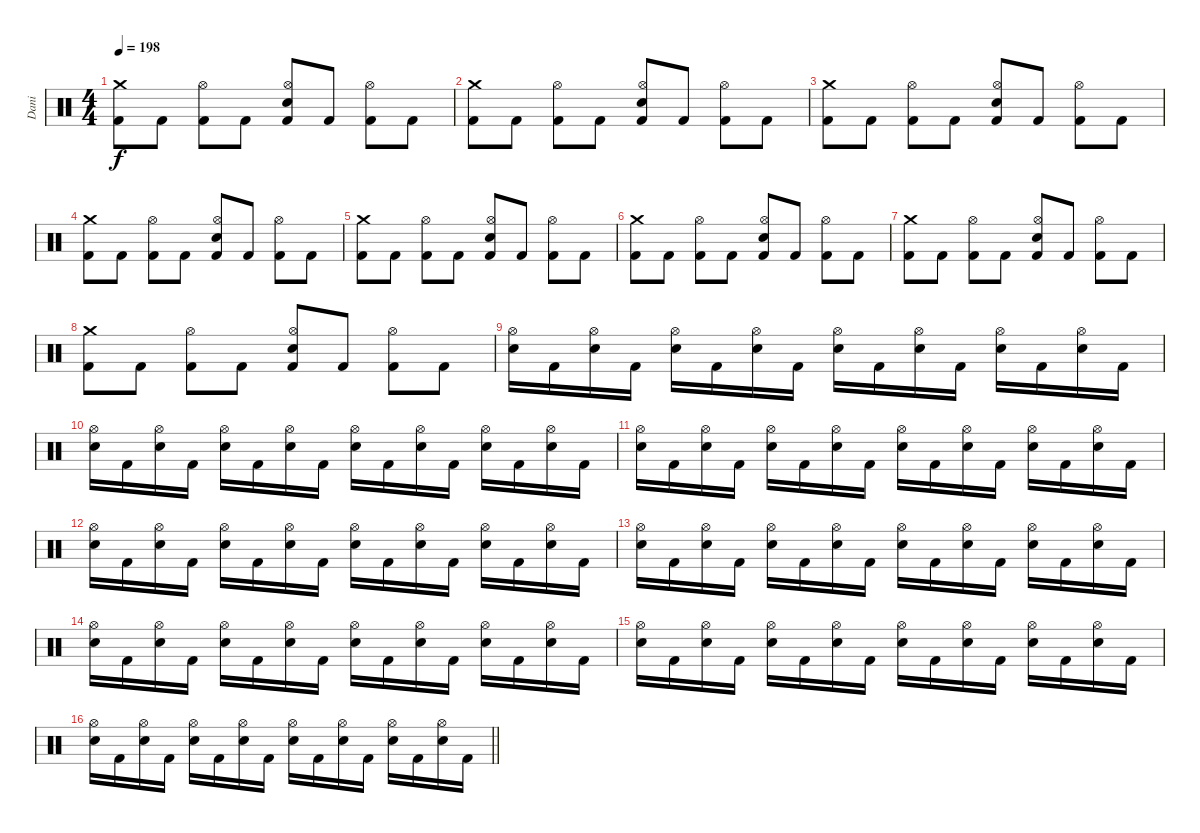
\track ("Dani" "Dani") {instrument percussion}
\staff {score}
\articulation defaults
\ts (4 4)
\tempo 198
\clef neutral
\ks c
("Crash medium (hit)" "Kick (hit) 2").8{dy f} "Kick (hit) 2".8 ("Hi-Hat (open)" "Kick (hit) 2").8 "Kick (hit) 2".8 ("Hi-Hat (open)" "Kick (hit) 2" "Electric Snare (hit)").8 "Kick (hit) 2".8 ("Hi-Hat (open)" "Kick (hit) 2").8 "Kick (hit) 2".8 |
("Crash medium (hit)" "Kick (hit) 2").8 "Kick (hit) 2".8 ("Hi-Hat (open)" "Kick (hit) 2").8 "Kick (hit) 2".8 ("Hi-Hat (open)" "Kick (hit) 2" "Electric Snare (hit)").8 "Kick (hit) 2".8 ("Hi-Hat (open)" "Kick (hit) 2").8 "Kick (hit) 2".8 |
("Crash medium (hit)" "Kick (hit) 2").8 "Kick (hit) 2".8 ("Hi-Hat (open)" "Kick (hit) 2").8 "Kick (hit) 2".8 ("Hi-Hat (open)" "Kick (hit) 2" "Electric Snare (hit)").8 "Kick (hit) 2".8 ("Hi-Hat (open)" "Kick (hit) 2").8 "Kick (hit) 2".8 |
("Crash medium (hit)" "Kick (hit) 2").8 "Kick (hit) 2".8 ("Hi-Hat (open)" "Kick (hit) 2").8 "Kick (hit) 2".8 ("Hi-Hat (open)" "Kick (hit) 2" "Electric Snare (hit)").8 "Kick (hit) 2".8 ("Hi-Hat (open)" "Kick (hit) 2").8 "Kick (hit) 2".8 |
("Crash medium (hit)" "Kick (hit) 2").8 "Kick (hit) 2".8 ("Hi-Hat (open)" "Kick (hit) 2").8 "Kick (hit) 2".8 ("Hi-Hat (open)" "Kick (hit) 2" "Electric Snare (hit)").8 "Kick (hit) 2".8 ("Hi-Hat (open)" "Kick (hit) 2").8 "Kick (hit) 2".8 |
("Crash medium (hit)" "Kick (hit) 2").8 "Kick (hit) 2".8 ("Hi-Hat (open)" "Kick (hit) 2").8 "Kick (hit) 2".8 ("Hi-Hat (open)" "Kick (hit) 2" "Electric Snare (hit)").8 "Kick (hit) 2".8 ("Hi-Hat (open)" "Kick (hit) 2").8 "Kick (hit) 2".8 |
("Crash medium (hit)" "Kick (hit) 2").8 "Kick (hit) 2".8 ("Hi-Hat (open)" "Kick (hit) 2").8 "Kick (hit) 2".8 ("Hi-Hat (open)" "Kick (hit) 2" "Electric Snare (hit)").8 "Kick (hit) 2".8 ("Hi-Hat (open)" "Kick (hit) 2").8 "Kick (hit) 2".8 |
("Crash medium (hit)" "Kick (hit) 2").8 "Kick (hit) 2".8 ("Hi-Hat (open)" "Kick (hit) 2").8 "Kick (hit) 2".8 ("Hi-Hat (open)" "Kick (hit) 2" "Electric Snare (hit)").8 "Kick (hit) 2".8 ("Hi-Hat (open)" "Kick (hit) 2").8 "Kick (hit) 2".8 |
("Hi-Hat (open)" "Electric Snare (hit)").16 "Kick (hit) 2".16 ("Hi-Hat (open)" "Electric Snare (hit)").16 "Kick (hit) 2".16 ("Hi-Hat (open)" "Electric Snare (hit)").16 "Kick (hit) 2".16 ("Hi-Hat (open)" "Electric Snare (hit)").16 "Kick (hit) 2".16 ("Hi-Hat (open)" "Electric Snare (hit)").16 "Kick (hit) 2".16 ("Hi-Hat (open)" "Electric Snare (hit)").16 "Kick (hit) 2".16 ("Hi-Hat (open)" "Electric Snare (hit)").16 "Kick (hit) 2".16 ("Hi-Hat (open)" "Electric Snare (hit)").16 "Kick (hit) 2".16 |
("Hi-Hat (open)" "Electric Snare (hit)").16 "Kick (hit) 2".16 ("Hi-Hat (open)" "Electric Snare (hit)").16 "Kick (hit) 2".16 ("Hi-Hat (open)" "Electric Snare (hit)").16 "Kick (hit) 2".16 ("Hi-Hat (open)" "Electric Snare (hit)").16 "Kick (hit) 2".16 ("Hi-Hat (open)" "Electric Snare (hit)").16 "Kick (hit) 2".16 ("Hi-Hat (open)" "Electric Snare (hit)").16 "Kick (hit) 2".16 ("Hi-Hat (open)" "Electric Snare (hit)").16 "Kick (hit) 2".16 ("Hi-Hat (open)" "Electric Snare (hit)").16 "Kick (hit) 2".16 |
("Hi-Hat (open)" "Electric Snare (hit)").16 "Kick (hit) 2".16 ("Hi-Hat (open)" "Electric Snare (hit)").16 "Kick (hit) 2".16 ("Hi-Hat (open)" "Electric Snare (hit)").16 "Kick (hit) 2".16 ("Hi-Hat (open)" "Electric Snare (hit)").16 "Kick (hit) 2".16 ("Hi-Hat (open)" "Electric Snare (hit)").16 "Kick (hit) 2".16 ("Hi-Hat (open)" "Electric Snare (hit)").16 "Kick (hit) 2".16 ("Hi-Hat (open)" "Electric Snare (hit)").16 "Kick (hit) 2".16 ("Hi-Hat (open)" "Electric Snare (hit)").16 "Kick (hit) 2".16 |
("Hi-Hat (open)" "Electric Snare (hit)").16 "Kick (hit) 2".16 ("Hi-Hat (open)" "Electric Snare (hit)").16 "Kick (hit) 2".16 ("Hi-Hat (open)" "Electric Snare (hit)").16 "Kick (hit) 2".16 ("Hi-Hat (open)" "Electric Snare (hit)").16 "Kick (hit) 2".16 ("Hi-Hat (open)" "Electric Snare (hit)").16 "Kick (hit) 2".16 ("Hi-Hat (open)" "Electric Snare (hit)").16 "Kick (hit) 2".16 ("Hi-Hat (open)" "Electric Snare (hit)").16 "Kick (hit) 2".16 ("Hi-Hat (open)" "Electric Snare (hit)").16 "Kick (hit) 2".16 |
("Hi-Hat (open)" "Electric Snare (hit)").16 "Kick (hit) 2".16 ("Hi-Hat (open)" "Electric Snare (hit)").16 "Kick (hit) 2".16 ("Hi-Hat (open)" "Electric Snare (hit)").16 "Kick (hit) 2".16 ("Hi-Hat (open)" "Electric Snare (hit)").16 "Kick (hit) 2".16 ("Hi-Hat (open)" "Electric Snare (hit)").16 "Kick (hit) 2".16 ("Hi-Hat (open)" "Electric Snare (hit)").16 "Kick (hit) 2".16 ("Hi-Hat (open)" "Electric Snare (hit)").16 "Kick (hit) 2".16 ("Hi-Hat (open)" "Electric Snare (hit)").16 "Kick (hit) 2".16 |
("Hi-Hat (open)" "Electric Snare (hit)").16 "Kick (hit) 2".16 ("Hi-Hat (open)" "Electric Snare (hit)").16 "Kick (hit) 2".16 ("Hi-Hat (open)" "Electric Snare (hit)").16 "Kick (hit) 2".16 ("Hi-Hat (open)" "Electric Snare (hit)").16 "Kick (hit) 2".16 ("Hi-Hat (open)" "Electric Snare (hit)").16 "Kick (hit) 2".16 ("Hi-Hat (open)" "Electric Snare (hit)").16 "Kick (hit) 2".16 ("Hi-Hat (open)" "Electric Snare (hit)").16 "Kick (hit) 2".16 ("Hi-Hat (open)" "Electric Snare (hit)").16 "Kick (hit) 2".16 |
("Hi-Hat (open)" "Electric Snare (hit)").16 "Kick (hit) 2".16 ("Hi-Hat (open)" "Electric Snare (hit)").16 "Kick (hit) 2".16 ("Hi-Hat (open)" "Electric Snare (hit)").16 "Kick (hit) 2".16 ("Hi-Hat (open)" "Electric Snare (hit)").16 "Kick (hit) 2".16 ("Hi-Hat (open)" "Electric Snare (hit)").16 "Kick (hit) 2".16 ("Hi-Hat (open)" "Electric Snare (hit)").16 "Kick (hit) 2".16 ("Hi-Hat (open)" "Electric Snare (hit)").16 "Kick (hit) 2".16 ("Hi-Hat (open)" "Electric Snare (hit)").16 "Kick (hit) 2".16 |
\barLineRight lightlight
("Hi-Hat (open)" "Electric Snare (hit)").16 "Kick (hit) 2".16 ("Hi-Hat (open)" "Electric Snare (hit)").16 "Kick (hit) 2".16 ("Hi-Hat (open)" "Electric Snare (hit)").16 "Kick (hit) 2".16 ("Hi-Hat (open)" "Electric Snare (hit)").16 "Kick (hit) 2".16 ("Hi-Hat (open)" "Electric Snare (hit)").16 "Kick (hit) 2".16 ("Hi-Hat (open)" "Electric Snare (hit)").16 "Kick (hit) 2".16 ("Hi-Hat (open)" "Electric Snare (hit)").16 "Kick (hit) 2".16 ("Hi-Hat (open)" "Electric Snare (hit)").16 "Kick (hit) 2".16
